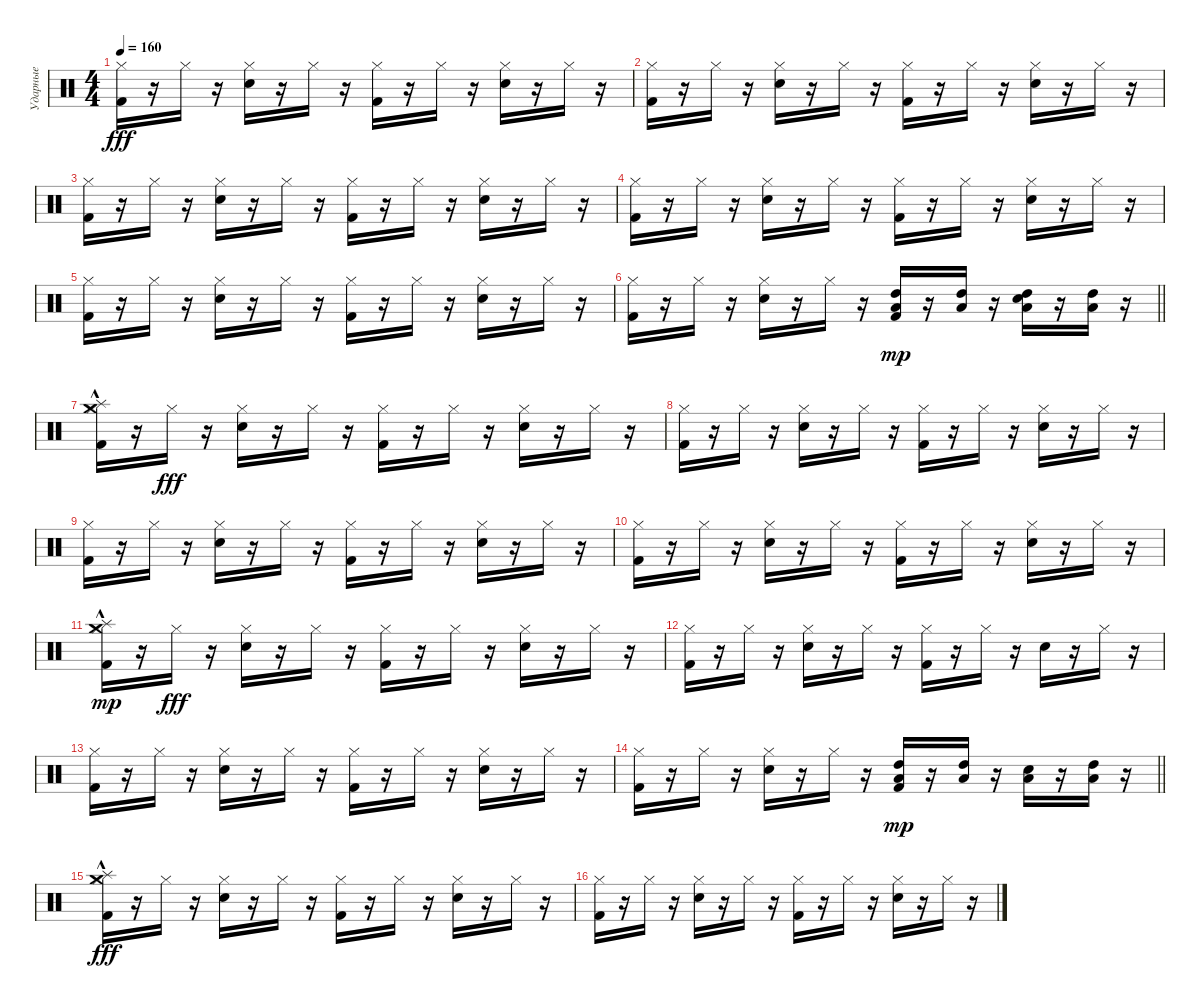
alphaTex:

\track ("Ударные" "Ударные") {instrument percussion}
\staff {score}
\articulation defaults
\ts (4 4)
\tempo 160
\clef neutral
\ks c
("Hi-Hat (closed)" "Kick (hit) 2").16{dy fff} r.16 "Hi-Hat (closed)".16 r.16 ("Hi-Hat (closed)" "Electric Snare (hit)").16 r.16 "Hi-Hat (closed)".16 r.16 ("Hi-Hat (closed)" "Kick (hit) 2").16 r.16 "Hi-Hat (closed)".16 r.16 ("Hi-Hat (closed)" "Electric Snare (hit)").16 r.16 "Hi-Hat (closed)".16 r.16 |
("Hi-Hat (closed)" "Kick (hit) 2").16 r.16 "Hi-Hat (closed)".16 r.16 ("Hi-Hat (closed)" "Electric Snare (hit)").16 r.16 "Hi-Hat (closed)".16 r.16 ("Hi-Hat (closed)" "Kick (hit) 2").16 r.16 "Hi-Hat (closed)".16 r.16 ("Hi-Hat (closed)" "Electric Snare (hit)").16 r.16 "Hi-Hat (closed)".16 r.16 |
("Hi-Hat (closed)" "Kick (hit) 2").16 r.16 "Hi-Hat (closed)".16 r.16 ("Hi-Hat (closed)" "Electric Snare (hit)").16 r.16 "Hi-Hat (closed)".16 r.16 ("Hi-Hat (closed)" "Kick (hit) 2").16 r.16 "Hi-Hat (closed)".16 r.16 ("Hi-Hat (closed)" "Electric Snare (hit)").16 r.16 "Hi-Hat (closed)".16 r.16 |
("Hi-Hat (closed)" "Kick (hit) 2").16 r.16 "Hi-Hat (closed)".16 r.16 ("Hi-Hat (closed)" "Electric Snare (hit)").16 r.16 "Hi-Hat (closed)".16 r.16 ("Hi-Hat (closed)" "Kick (hit) 2").16 r.16 "Hi-Hat (closed)".16 r.16 ("Hi-Hat (closed)" "Electric Snare (hit)").16 r.16 "Hi-Hat (closed)".16 r.16 |
("Hi-Hat (closed)" "Kick (hit) 2").16 r.16 "Hi-Hat (closed)".16 r.16 ("Hi-Hat (closed)" "Electric Snare (hit)").16 r.16 "Hi-Hat (closed)".16 r.16 ("Hi-Hat (closed)" "Kick (hit) 2").16 r.16 "Hi-Hat (closed)".16 r.16 ("Hi-Hat (closed)" "Electric Snare (hit)").16 r.16 "Hi-Hat (closed)".16 r.16 |
\barLineRight lightlight
("Hi-Hat (closed)" "Kick (hit) 2").16 r.16 "Hi-Hat (closed)".16 r.16 ("Hi-Hat (closed)" "Electric Snare (hit)").16 r.16 "Hi-Hat (closed)".16 r.16 ("Kick (hit) 2" "High Tom (hit)" "Low Tom (hit)").16{dy mp} r.16 ("High Tom (hit)" "Low Tom (hit)").16 r.16 ("Electric Snare (hit)" "High Tom (hit)" "Low Tom (hit)").16 r.16 ("High Tom (hit)" "Low Tom (hit)").16 r.16 |
("Hi-Hat (closed)" "Kick (hit) 2" "Crash medium (hit)"{hac} "Splash (hit)").16 r.16 "Hi-Hat (closed)".16{dy fff} r.16 ("Hi-Hat (closed)" "Electric Snare (hit)").16 r.16 "Hi-Hat (closed)".16 r.16 ("Hi-Hat (closed)" "Kick (hit) 2").16 r.16 "Hi-Hat (closed)".16 r.16 ("Hi-Hat (closed)" "Electric Snare (hit)").16 r.16 "Hi-Hat (closed)".16 r.16 |
("Hi-Hat (closed)" "Kick (hit) 2").16 r.16 "Hi-Hat (closed)".16 r.16 ("Hi-Hat (closed)" "Electric Snare (hit)").16 r.16 "Hi-Hat (closed)".16 r.16 ("Hi-Hat (closed)" "Kick (hit) 2").16 r.16 "Hi-Hat (closed)".16 r.16 ("Hi-Hat (closed)" "Electric Snare (hit)").16 r.16 "Hi-Hat (closed)".16 r.16 |
("Hi-Hat (closed)" "Kick (hit) 2").16 r.16 "Hi-Hat (closed)".16 r.16 ("Hi-Hat (closed)" "Electric Snare (hit)").16 r.16 "Hi-Hat (closed)".16 r.16 ("Hi-Hat (closed)" "Kick (hit) 2").16 r.16 "Hi-Hat (closed)".16 r.16 ("Hi-Hat (closed)" "Electric Snare (hit)").16 r.16 "Hi-Hat (closed)".16 r.16 |
("Hi-Hat (closed)" "Kick (hit) 2").16 r.16 "Hi-Hat (closed)".16 r.16 ("Hi-Hat (closed)" "Electric Snare (hit)").16 r.16 "Hi-Hat (closed)".16 r.16 ("Hi-Hat (closed)" "Kick (hit) 2").16 r.16 "Hi-Hat (closed)".16 r.16 ("Hi-Hat (closed)" "Electric Snare (hit)").16 r.16 "Hi-Hat (closed)".16 r.16 |
("Hi-Hat (closed)" "Kick (hit) 2" "Crash medium (hit)"{hac} "Splash (hit)").16{dy mp} r.16 "Hi-Hat (closed)".16{dy fff} r.16 ("Hi-Hat (closed)" "Electric Snare (hit)").16 r.16 "Hi-Hat (closed)".16 r.16 ("Hi-Hat (closed)" "Kick (hit) 2").16 r.16 "Hi-Hat (closed)".16 r.16 ("Hi-Hat (closed)" "Electric Snare (hit)").16 r.16 "Hi-Hat (closed)".16 r.16 |
("Hi-Hat (closed)" "Kick (hit) 2").16 r.16 "Hi-Hat (closed)".16 r.16 ("Hi-Hat (closed)" "Electric Snare (hit)").16 r.16 "Hi-Hat (closed)".16 r.16 ("Hi-Hat (closed)" "Kick (hit) 2").16 r.16 "Hi-Hat (closed)".16 r.16 "Electric Snare (hit)".16 r.16 "Hi-Hat (closed)".16 r.16 |
("Hi-Hat (closed)" "Kick (hit) 2").16 r.16 "Hi-Hat (closed)".16 r.16 ("Hi-Hat (closed)" "Electric Snare (hit)").16 r.16 "Hi-Hat (closed)".16 r.16 ("Hi-Hat (closed)" "Kick (hit) 2").16 r.16 "Hi-Hat (closed)".16 r.16 ("Hi-Hat (closed)" "Electric Snare (hit)").16 r.16 "Hi-Hat (closed)".16 r.16 |
\barLineRight lightlight
("Hi-Hat (closed)" "Kick (hit) 2").16 r.16 "Hi-Hat (closed)".16 r.16 ("Hi-Hat (closed)" "Electric Snare (hit)").16 r.16 "Hi-Hat (closed)".16 r.16 ("Kick (hit) 2" "High Tom (hit)" "Low Tom (hit)").16{dy mp} r.16 ("High Tom (hit)" "Low Tom (hit)").16 r.16 ("Electric Snare (hit)" "Low Tom (hit)").16 r.16 ("High Tom (hit)" "Low Tom (hit)").16 r.16 |
("Hi-Hat (closed)" "Kick (hit) 2" "Crash medium (hit)"{hac} "Splash (hit)").16{dy fff} r.16 "Hi-Hat (closed)".16 r.16 ("Hi-Hat (closed)" "Electric Snare (hit)").16 r.16 "Hi-Hat (closed)".16 r.16 ("Hi-Hat (closed)" "Kick (hit) 2").16 r.16 "Hi-Hat (closed)".16 r.16 ("Hi-Hat (closed)" "Electric Snare (hit)").16 r.16 "Hi-Hat (closed)".16 r.16 |
("Hi-Hat (closed)" "Kick (hit) 2").16 r.16 "Hi-Hat (closed)".16 r.16 ("Hi-Hat (closed)" "Electric Snare (hit)").16 r.16 "Hi-Hat (closed)".16 r.16 ("Hi-Hat (closed)" "Kick (hit) 2").16 r.16 "Hi-Hat (closed)".16 r.16 ("Hi-Hat (closed)" "Electric Snare (hit)").16 r.16 "Hi-Hat (closed)".16 r.16
